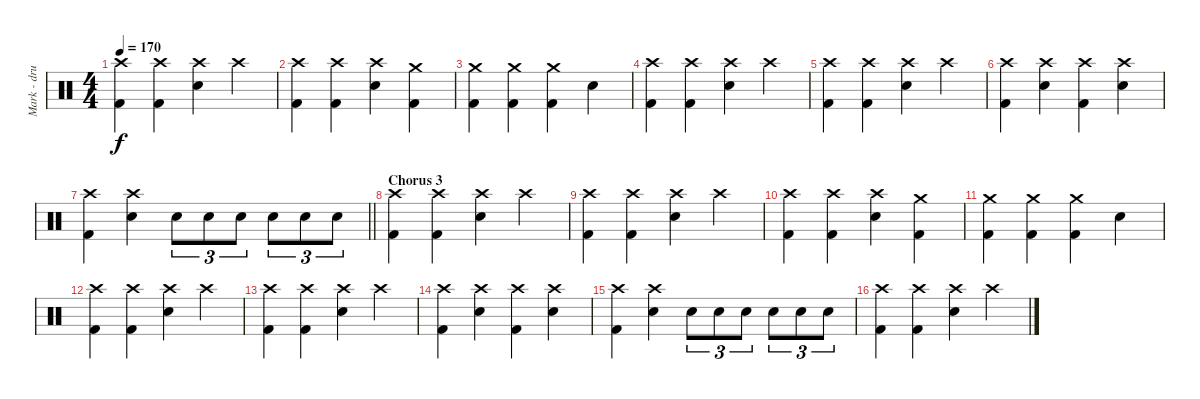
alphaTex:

\track ("Mark - drums" "Mark - dru") {instrument percussion}
\staff {score}
\articulation defaults
\ts (4 4)
\tempo 170
\clef neutral
\ks c
("Kick (hit) 2" "Crash high (hit)").4{dy f} ("Kick (hit) 2" "Crash high (hit)").4 ("Electric Snare (hit)" "Crash high (hit)").4 "Crash high (hit)".4 |
("Kick (hit) 2" "Crash high (hit)").4 ("Kick (hit) 2" "Crash high (hit)").4 ("Electric Snare (hit)" "Crash high (hit)").4 ("Kick (hit) 2" "Crash medium (hit)").4 |
("Kick (hit) 2" "Crash medium (hit)").4 ("Kick (hit) 2" "Crash medium (hit)").4 ("Kick (hit) 2" "Crash medium (hit)").4 "Electric Snare (hit)".4 |
("Kick (hit) 2" "Crash high (hit)").4 ("Kick (hit) 2" "Crash high (hit)").4 ("Electric Snare (hit)" "Crash high (hit)").4 "Crash high (hit)".4 |
("Kick (hit) 2" "Crash high (hit)").4 ("Kick (hit) 2" "Crash high (hit)").4 ("Electric Snare (hit)" "Crash high (hit)").4 "Crash high (hit)".4 |
("Kick (hit) 2" "Crash high (hit)").4 ("Electric Snare (hit)" "Crash high (hit)").4 ("Kick (hit) 2" "Crash high (hit)").4 ("Electric Snare (hit)" "Crash high (hit)").4 |
\barLineRight lightlight
("Kick (hit) 2" "Crash high (hit)").4 ("Electric Snare (hit)" "Crash high (hit)").4 "Electric Snare (hit)".8{tu (3 2)} "Electric Snare (hit)".8{tu (3 2)} "Electric Snare (hit)".8{tu (3 2)} "Electric Snare (hit)".8{tu (3 2)} "Electric Snare (hit)".8{tu (3 2)} "Electric Snare (hit)".8{tu (3 2)} |
\section ("" "Chorus 3")
("Kick (hit) 2" "Crash high (hit)").4 ("Kick (hit) 2" "Crash high (hit)").4 ("Electric Snare (hit)" "Crash high (hit)").4 "Crash high (hit)".4 |
("Kick (hit) 2" "Crash high (hit)").4 ("Kick (hit) 2" "Crash high (hit)").4 ("Electric Snare (hit)" "Crash high (hit)").4 "Crash high (hit)".4 |
("Kick (hit) 2" "Crash high (hit)").4 ("Kick (hit) 2" "Crash high (hit)").4 ("Electric Snare (hit)" "Crash high (hit)").4 ("Kick (hit) 2" "Crash medium (hit)").4 |
("Kick (hit) 2" "Crash medium (hit)").4 ("Kick (hit) 2" "Crash medium (hit)").4 ("Kick (hit) 2" "Crash medium (hit)").4 "Electric Snare (hit)".4 |
("Kick (hit) 2" "Crash high (hit)").4 ("Kick (hit) 2" "Crash high (hit)").4 ("Electric Snare (hit)" "Crash high (hit)").4 "Crash high (hit)".4 |
("Kick (hit) 2" "Crash high (hit)").4 ("Kick (hit) 2" "Crash high (hit)").4 ("Electric Snare (hit)" "Crash high (hit)").4 "Crash high (hit)".4 |
("Kick (hit) 2" "Crash high (hit)").4 ("Electric Snare (hit)" "Crash high (hit)").4 ("Kick (hit) 2" "Crash high (hit)").4 ("Electric Snare (hit)" "Crash high (hit)").4 |
("Kick (hit) 2" "Crash high (hit)").4 ("Electric Snare (hit)" "Crash high (hit)").4 "Electric Snare (hit)".8{tu (3 2)} "Electric Snare (hit)".8{tu (3 2)} "Electric Snare (hit)".8{tu (3 2)} "Electric Snare (hit)".8{tu (3 2)} "Electric Snare (hit)".8{tu (3 2)} "Electric Snare (hit)".8{tu (3 2)} |
("Kick (hit) 2" "Crash high (hit)").4 ("Kick (hit) 2" "Crash high (hit)").4 ("Electric Snare (hit)" "Crash high (hit)").4 "Crash high (hit)".4
